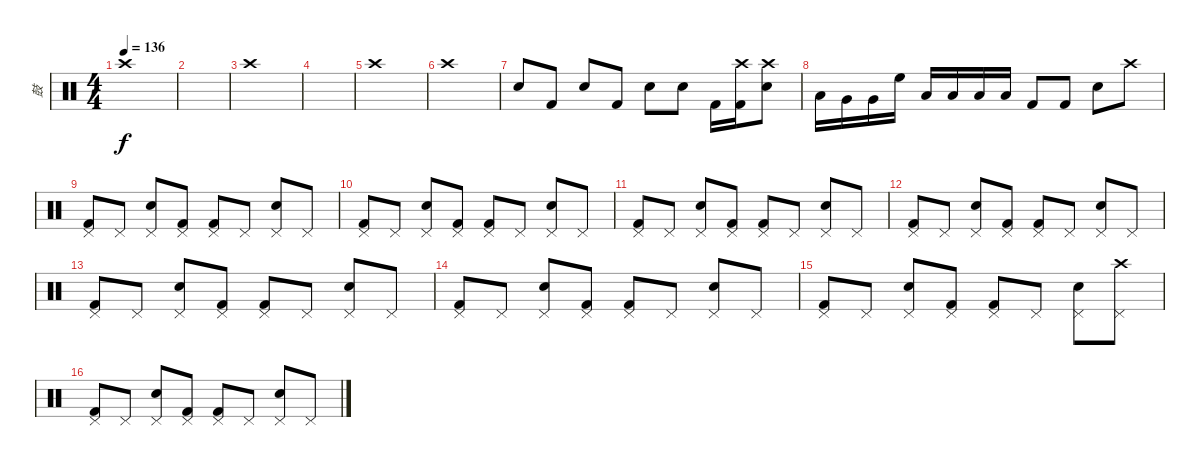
\track ("鼓" "鼓") {instrument percussion}
\staff {score}
\articulation defaults
\ts (4 4)
\tempo 136
\clef neutral
\ks c "Crash high (hit)".1{dy f}
|
|
"Crash high (hit)".1 |
|
"Crash high (hit)".1 |
"Crash high (hit)".1 |
"Electric Snare (hit)".8 "Kick (hit) 2".8 "Electric Snare (hit)".8 "Kick (hit) 2".8 "Electric Snare (hit)".8 "Electric Snare (hit)".8 "Kick (hit) 2".16 ("Crash high (hit)" "Kick (hit) 2").16 ("Crash high (hit)" "Electric Snare (hit)").8 |
"Low Floor Tom (hit)".16 "Very Low Tom (hit)".16 "Very Low Tom (hit)".16 "High Floor Tom (hit)".16 "Low Tom (hit)".16 "Low Tom (hit)".16 "Low Tom (hit)".16 "Low Tom (hit)".16 "Kick (hit) 2".8 "Kick (hit) 2".8 "Electric Snare (hit)".8 "Crash high (hit)".8 |
("Pedal Hi-Hat (hit)" "Kick (hit) 2").8 "Pedal Hi-Hat (hit)".8 ("Pedal Hi-Hat (hit)" "Electric Snare (hit)").8 ("Pedal Hi-Hat (hit)" "Kick (hit) 2").8 ("Pedal Hi-Hat (hit)" "Kick (hit) 2").8 "Pedal Hi-Hat (hit)".8 ("Pedal Hi-Hat (hit)" "Electric Snare (hit)").8 "Pedal Hi-Hat (hit)".8 |
("Pedal Hi-Hat (hit)" "Kick (hit) 2").8 "Pedal Hi-Hat (hit)".8 ("Pedal Hi-Hat (hit)" "Electric Snare (hit)").8 ("Pedal Hi-Hat (hit)" "Kick (hit) 2").8 ("Pedal Hi-Hat (hit)" "Kick (hit) 2").8 "Pedal Hi-Hat (hit)".8 ("Pedal Hi-Hat (hit)" "Electric Snare (hit)").8 "Pedal Hi-Hat (hit)".8 |
("Pedal Hi-Hat (hit)" "Kick (hit) 2").8 "Pedal Hi-Hat (hit)".8 ("Pedal Hi-Hat (hit)" "Electric Snare (hit)").8 ("Pedal Hi-Hat (hit)" "Kick (hit) 2").8 ("Pedal Hi-Hat (hit)" "Kick (hit) 2").8 "Pedal Hi-Hat (hit)".8 ("Pedal Hi-Hat (hit)" "Electric Snare (hit)").8 "Pedal Hi-Hat (hit)".8 |
("Pedal Hi-Hat (hit)" "Kick (hit) 2").8 "Pedal Hi-Hat (hit)".8 ("Pedal Hi-Hat (hit)" "Electric Snare (hit)").8 ("Pedal Hi-Hat (hit)" "Kick (hit) 2").8 ("Pedal Hi-Hat (hit)" "Kick (hit) 2").8 "Pedal Hi-Hat (hit)".8 ("Pedal Hi-Hat (hit)" "Electric Snare (hit)").8 "Pedal Hi-Hat (hit)".8 |
("Pedal Hi-Hat (hit)" "Kick (hit) 2").8 "Pedal Hi-Hat (hit)".8 ("Pedal Hi-Hat (hit)" "Electric Snare (hit)").8 ("Pedal Hi-Hat (hit)" "Kick (hit) 2").8 ("Pedal Hi-Hat (hit)" "Kick (hit) 2").8 "Pedal Hi-Hat (hit)".8 ("Pedal Hi-Hat (hit)" "Electric Snare (hit)").8 "Pedal Hi-Hat (hit)".8 |
("Pedal Hi-Hat (hit)" "Kick (hit) 2").8 "Pedal Hi-Hat (hit)".8 ("Pedal Hi-Hat (hit)" "Electric Snare (hit)").8 ("Pedal Hi-Hat (hit)" "Kick (hit) 2").8 ("Pedal Hi-Hat (hit)" "Kick (hit) 2").8 "Pedal Hi-Hat (hit)".8 ("Pedal Hi-Hat (hit)" "Electric Snare (hit)").8 "Pedal Hi-Hat (hit)".8 |
("Pedal Hi-Hat (hit)" "Kick (hit) 2").8 "Pedal Hi-Hat (hit)".8 ("Pedal Hi-Hat (hit)" "Electric Snare (hit)").8 ("Pedal Hi-Hat (hit)" "Kick (hit) 2").8 ("Pedal Hi-Hat (hit)" "Kick (hit) 2").8 "Pedal Hi-Hat (hit)".8 ("Pedal Hi-Hat (hit)" "Electric Snare (hit)").8 ("Pedal Hi-Hat (hit)" "Crash high (hit)").8 |
("Pedal Hi-Hat (hit)" "Kick (hit) 2").8 "Pedal Hi-Hat (hit)".8 ("Pedal Hi-Hat (hit)" "Electric Snare (hit)").8 ("Pedal Hi-Hat (hit)" "Kick (hit) 2").8 ("Pedal Hi-Hat (hit)" "Kick (hit) 2").8 "Pedal Hi-Hat (hit)".8 ("Pedal Hi-Hat (hit)" "Electric Snare (hit)").8 "Pedal Hi-Hat (hit)".8
